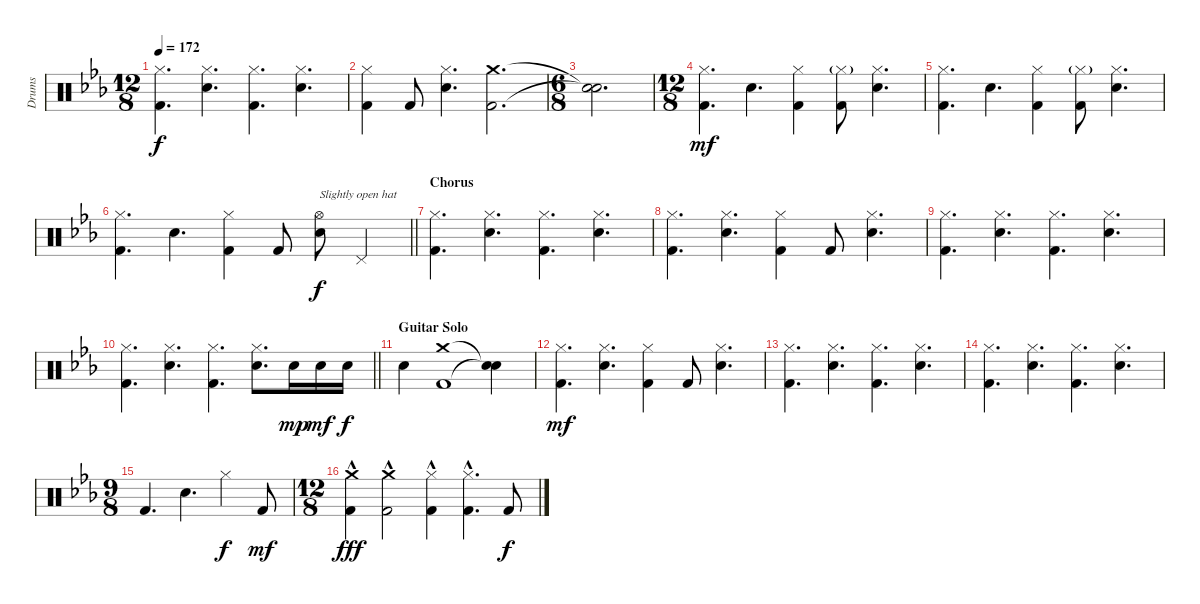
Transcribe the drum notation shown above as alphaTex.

\track ("Drums" "Drums") {instrument percussion}
\staff {score}
\articulation defaults
\ts (12 8)
\tempo 172
\clef neutral
\ks cminor
("Hi-Hat (closed)" "Kick (hit) 2").4{d dy f} ("Hi-Hat (closed)" "Electric Snare (hit)").4{d} ("Hi-Hat (closed)" "Kick (hit) 2").4{d} ("Hi-Hat (closed)" "Electric Snare (hit)").4{d} |
("Hi-Hat (closed)" "Kick (hit) 2").4 "Kick (hit) 2".8 ("Hi-Hat (closed)" "Electric Snare (hit)").4{d} ("Crash medium (hit)" "Kick (hit) 2").2{d} |
\ts (6 8)
("Snare (hit)"{t} "Snare (hit)"{t}).2{d} |
\ts (12 8)
("Hi-Hat (closed)" "Kick (hit) 2").4{d dy mf} "Electric Snare (hit)".4{d} ("Hi-Hat (closed)" "Kick (hit) 2").4 ("Hi-Hat (closed)"{g} "Kick (hit) 2").8 ("Hi-Hat (closed)" "Electric Snare (hit)").4{d} |
("Hi-Hat (closed)" "Kick (hit) 2").4{d} "Electric Snare (hit)".4{d} ("Hi-Hat (closed)" "Kick (hit) 2").4 ("Hi-Hat (closed)"{g} "Kick (hit) 2").8 ("Hi-Hat (closed)" "Electric Snare (hit)").4{d} |
\barLineRight lightlight
("Hi-Hat (closed)" "Kick (hit) 2").4{d} "Electric Snare (hit)".4{d} ("Hi-Hat (closed)" "Kick (hit) 2").4 "Kick (hit) 2".8 ("Hi-Hat (open)" "Electric Snare (hit)").8{txt "Slightly open hat" dy f} "Pedal Hi-Hat (hit)".4 |
\section ("" "Chorus")
("Hi-Hat (closed)" "Kick (hit) 2").4{d} ("Hi-Hat (closed)" "Electric Snare (hit)").4{d} ("Hi-Hat (closed)" "Kick (hit) 2").4{d} ("Hi-Hat (closed)" "Electric Snare (hit)").4{d} |
("Hi-Hat (closed)" "Kick (hit) 2").4{d} ("Hi-Hat (closed)" "Electric Snare (hit)").4{d} ("Hi-Hat (closed)" "Kick (hit) 2").4 "Kick (hit) 2".8 ("Hi-Hat (closed)" "Electric Snare (hit)").4{d} |
("Hi-Hat (closed)" "Kick (hit) 2").4{d} ("Hi-Hat (closed)" "Electric Snare (hit)").4{d} ("Hi-Hat (closed)" "Kick (hit) 2").4{d} ("Hi-Hat (closed)" "Electric Snare (hit)").4{d} |
\barLineRight lightlight
("Hi-Hat (closed)" "Kick (hit) 2").4{d} ("Hi-Hat (closed)" "Electric Snare (hit)").4{d} ("Hi-Hat (closed)" "Kick (hit) 2").4{d} ("Hi-Hat (closed)" "Electric Snare (hit)").8{d} "Electric Snare (hit)".16{dy mp} "Electric Snare (hit)".16{dy mf} "Electric Snare (hit)".16{dy f} |
\section ("" "Guitar Solo")
"Electric Snare (hit)".4 ("Crash medium (hit)" "Kick (hit) 2").1 ("Snare (hit)"{t} "Snare (hit)"{t}).4 |
("Hi-Hat (closed)" "Kick (hit) 2").4{d dy mf} ("Hi-Hat (closed)" "Electric Snare (hit)").4{d} ("Hi-Hat (closed)" "Kick (hit) 2").4 "Kick (hit) 2".8 ("Hi-Hat (closed)" "Electric Snare (hit)").4{d} |
("Hi-Hat (closed)" "Kick (hit) 2").4{d} ("Hi-Hat (closed)" "Electric Snare (hit)").4{d} ("Hi-Hat (closed)" "Kick (hit) 2").4{d} ("Hi-Hat (closed)" "Electric Snare (hit)").4{d} |
("Hi-Hat (closed)" "Kick (hit) 2").4{d} ("Hi-Hat (closed)" "Electric Snare (hit)").4{d} ("Hi-Hat (closed)" "Kick (hit) 2").4{d} ("Hi-Hat (closed)" "Electric Snare (hit)").4{d} |
\ts (9 8)
"Kick (hit) 2".4{d} "Electric Snare (hit)".4{d} "Hi-Hat (closed)".4{dy f} "Kick (hit) 2".8{dy mf} |
\ts (12 8)
("Crash medium (hit)" "Kick (hit) 2"{hac}).4{dy fff} ("Crash medium (hit)" "Kick (hit) 2"{hac}).2 ("Hi-Hat (closed)" "Kick (hit) 2"{hac}).4 ("Hi-Hat (closed)" "Kick (hit) 2"{hac}).4{d} "Kick (hit) 2".8{dy f}
